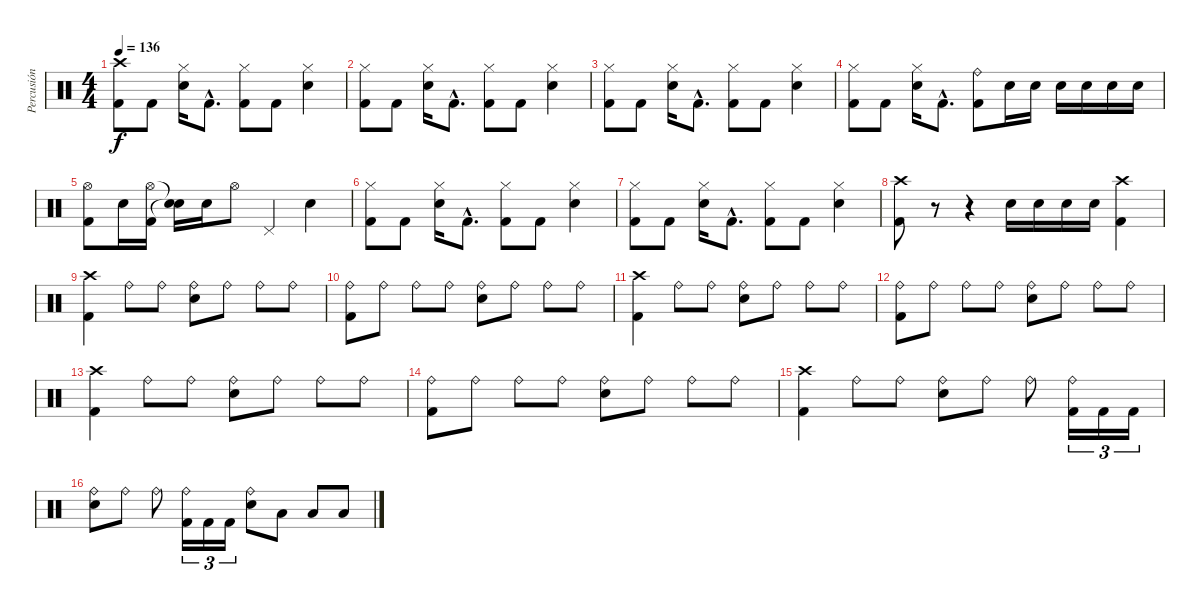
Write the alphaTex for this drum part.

\track ("Percusión" "Percusión") {instrument percussion}
\staff {score}
\articulation defaults
\ts (4 4)
\tempo 136
\clef neutral
\ks c
("Crash high (hit)" "Kick (hit) 2").8{dy f} "Kick (hit) 2".8 ("Hi-Hat (closed)" "Electric Snare (hit)").16 "Kick (hit) 2"{hac}.8{d} ("Hi-Hat (closed)" "Kick (hit) 2").8 "Kick (hit) 2".8 ("Hi-Hat (closed)" "Electric Snare (hit)").4 |
("Hi-Hat (closed)" "Kick (hit) 2").8 "Kick (hit) 2".8 ("Hi-Hat (closed)" "Electric Snare (hit)").16 "Kick (hit) 2"{hac}.8{d} ("Hi-Hat (closed)" "Kick (hit) 2").8 "Kick (hit) 2".8 ("Hi-Hat (closed)" "Electric Snare (hit)").4 |
("Hi-Hat (closed)" "Kick (hit) 2").8 "Kick (hit) 2".8 ("Hi-Hat (closed)" "Electric Snare (hit)").16 "Kick (hit) 2"{hac}.8{d} ("Hi-Hat (closed)" "Kick (hit) 2").8 "Kick (hit) 2".8 ("Hi-Hat (closed)" "Electric Snare (hit)").4 |
("Hi-Hat (closed)" "Kick (hit) 2").8 "Kick (hit) 2".8 ("Hi-Hat (closed)" "Electric Snare (hit)").16 "Kick (hit) 2"{hac}.8{d} ("Ride (bell)" "Kick (hit) 2").8 "Electric Snare (hit)".16 "Electric Snare (hit)".16 "Electric Snare (hit)".16 "Electric Snare (hit)".16 "Electric Snare (hit)".16 "Electric Snare (hit)".16 |
("Hi-Hat (open)" "Kick (hit) 2").8 "Electric Snare (hit)".16 ("Hi-Hat (open)" "Kick (hit) 2").16 ("Snare (hit)"{t} "Snare (hit)"{t}).16 "Electric Snare (hit)".16 "Hi-Hat (open)".8 "Pedal Hi-Hat (hit)".4 "Electric Snare (hit)".4 |
("Hi-Hat (closed)" "Kick (hit) 2").8 "Kick (hit) 2".8 ("Hi-Hat (closed)" "Electric Snare (hit)").16 "Kick (hit) 2"{hac}.8{d} ("Hi-Hat (closed)" "Kick (hit) 2").8 "Kick (hit) 2".8 ("Hi-Hat (closed)" "Electric Snare (hit)").4 |
("Hi-Hat (closed)" "Kick (hit) 2").8 "Kick (hit) 2".8 ("Hi-Hat (closed)" "Electric Snare (hit)").16 "Kick (hit) 2"{hac}.8{d} ("Hi-Hat (closed)" "Kick (hit) 2").8 "Kick (hit) 2".8 ("Hi-Hat (closed)" "Electric Snare (hit)").4 |
("Crash high (hit)" "Kick (hit) 2").8 r.8 r.4 "Electric Snare (hit)".16 "Electric Snare (hit)".16 "Electric Snare (hit)".16 "Electric Snare (hit)".16 ("Crash high (hit)" "Kick (hit) 2").4 |
("Crash high (hit)" "Kick (hit) 2").4 "Ride (bell)".8 "Ride (bell)".8 ("Ride (bell)" "Electric Snare (hit)").8 "Ride (bell)".8 "Ride (bell)".8 "Ride (bell)".8 |
("Ride (bell)" "Kick (hit) 2").8 "Ride (bell)".8 "Ride (bell)".8 "Ride (bell)".8 ("Ride (bell)" "Electric Snare (hit)").8 "Ride (bell)".8 "Ride (bell)".8 "Ride (bell)".8 |
("Crash high (hit)" "Kick (hit) 2").4 "Ride (bell)".8 "Ride (bell)".8 ("Ride (bell)" "Electric Snare (hit)").8 "Ride (bell)".8 "Ride (bell)".8 "Ride (bell)".8 |
("Ride (bell)" "Kick (hit) 2").8 "Ride (bell)".8 "Ride (bell)".8 "Ride (bell)".8 ("Ride (bell)" "Electric Snare (hit)").8 "Ride (bell)".8 "Ride (bell)".8 "Ride (bell)".8 |
("Crash high (hit)" "Kick (hit) 2").4 "Ride (bell)".8 "Ride (bell)".8 ("Ride (bell)" "Electric Snare (hit)").8 "Ride (bell)".8 "Ride (bell)".8 "Ride (bell)".8 |
("Ride (bell)" "Kick (hit) 2").8 "Ride (bell)".8 "Ride (bell)".8 "Ride (bell)".8 ("Ride (bell)" "Electric Snare (hit)").8 "Ride (bell)".8 "Ride (bell)".8 "Ride (bell)".8 |
("Crash high (hit)" "Kick (hit) 2").4 "Ride (bell)".8 "Ride (bell)".8 ("Ride (bell)" "Electric Snare (hit)").8 "Ride (bell)".8 "Ride (bell)".8 ("Ride (bell)" "Kick (hit) 2").16{tu (3 2)} "Kick (hit) 2".16{tu (3 2)} "Kick (hit) 2".16{tu (3 2)} |
("Ride (bell)" "Electric Snare (hit)").8 "Ride (bell)".8 "Ride (bell)".8 ("Ride (bell)" "Kick (hit) 2").16{tu (3 2)} "Kick (hit) 2".16{tu (3 2)} "Kick (hit) 2".16{tu (3 2)} ("Ride (bell)" "Electric Snare (hit)").8 "Low Tom (hit)".8 "Low Tom (hit)".8 "Low Tom (hit)".8
